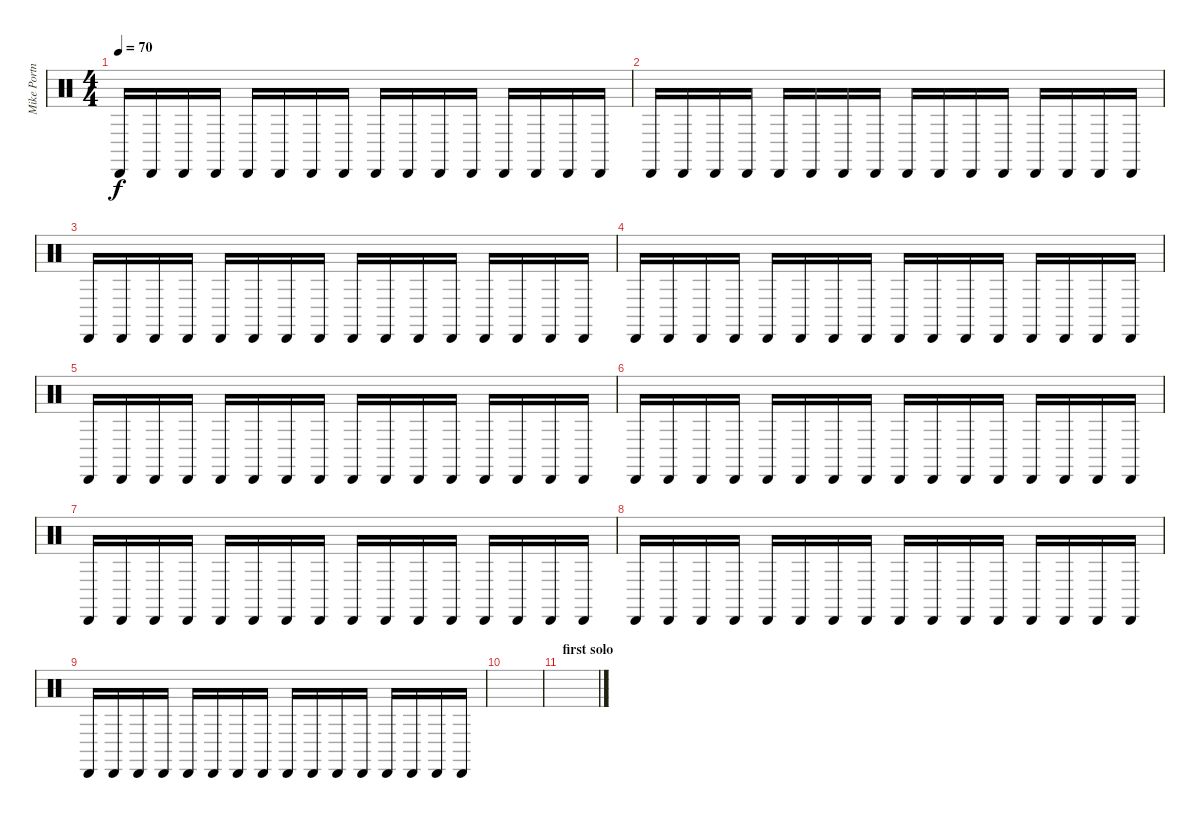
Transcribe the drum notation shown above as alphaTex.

\track ("Mike Portnoy" "Mike Portn") {instrument percussion}
\staff {score}
\articulation defaults
\ts (4 4)
\tempo 70
\clef neutral
\ks c "Cabasa (hit)".16{dy f} "Cabasa (hit)".16 "Cabasa (hit)".16 "Cabasa (hit)".16 "Cabasa (hit)".16 "Cabasa (hit)".16 "Cabasa (hit)".16 "Cabasa (hit)".16 "Cabasa (hit)".16 "Cabasa (hit)".16 "Cabasa (hit)".16 "Cabasa (hit)".16 "Cabasa (hit)".16 "Cabasa (hit)".16 "Cabasa (hit)".16 "Cabasa (hit)".16
|
"Cabasa (hit)".16 "Cabasa (hit)".16 "Cabasa (hit)".16 "Cabasa (hit)".16 "Cabasa (hit)".16 "Cabasa (hit)".16 "Cabasa (hit)".16 "Cabasa (hit)".16 "Cabasa (hit)".16 "Cabasa (hit)".16 "Cabasa (hit)".16 "Cabasa (hit)".16 "Cabasa (hit)".16 "Cabasa (hit)".16 "Cabasa (hit)".16 "Cabasa (hit)".16 |
"Cabasa (hit)".16 "Cabasa (hit)".16 "Cabasa (hit)".16 "Cabasa (hit)".16 "Cabasa (hit)".16 "Cabasa (hit)".16 "Cabasa (hit)".16 "Cabasa (hit)".16 "Cabasa (hit)".16 "Cabasa (hit)".16 "Cabasa (hit)".16 "Cabasa (hit)".16 "Cabasa (hit)".16 "Cabasa (hit)".16 "Cabasa (hit)".16 "Cabasa (hit)".16 |
"Cabasa (hit)".16 "Cabasa (hit)".16 "Cabasa (hit)".16 "Cabasa (hit)".16 "Cabasa (hit)".16 "Cabasa (hit)".16 "Cabasa (hit)".16 "Cabasa (hit)".16 "Cabasa (hit)".16 "Cabasa (hit)".16 "Cabasa (hit)".16 "Cabasa (hit)".16 "Cabasa (hit)".16 "Cabasa (hit)".16 "Cabasa (hit)".16 "Cabasa (hit)".16 |
"Cabasa (hit)".16 "Cabasa (hit)".16 "Cabasa (hit)".16 "Cabasa (hit)".16 "Cabasa (hit)".16 "Cabasa (hit)".16 "Cabasa (hit)".16 "Cabasa (hit)".16 "Cabasa (hit)".16 "Cabasa (hit)".16 "Cabasa (hit)".16 "Cabasa (hit)".16 "Cabasa (hit)".16 "Cabasa (hit)".16 "Cabasa (hit)".16 "Cabasa (hit)".16 |
"Cabasa (hit)".16 "Cabasa (hit)".16 "Cabasa (hit)".16 "Cabasa (hit)".16 "Cabasa (hit)".16 "Cabasa (hit)".16 "Cabasa (hit)".16 "Cabasa (hit)".16 "Cabasa (hit)".16 "Cabasa (hit)".16 "Cabasa (hit)".16 "Cabasa (hit)".16 "Cabasa (hit)".16 "Cabasa (hit)".16 "Cabasa (hit)".16 "Cabasa (hit)".16 |
"Cabasa (hit)".16 "Cabasa (hit)".16 "Cabasa (hit)".16 "Cabasa (hit)".16 "Cabasa (hit)".16 "Cabasa (hit)".16 "Cabasa (hit)".16 "Cabasa (hit)".16 "Cabasa (hit)".16 "Cabasa (hit)".16 "Cabasa (hit)".16 "Cabasa (hit)".16 "Cabasa (hit)".16 "Cabasa (hit)".16 "Cabasa (hit)".16 "Cabasa (hit)".16 |
"Cabasa (hit)".16 "Cabasa (hit)".16 "Cabasa (hit)".16 "Cabasa (hit)".16 "Cabasa (hit)".16 "Cabasa (hit)".16 "Cabasa (hit)".16 "Cabasa (hit)".16 "Cabasa (hit)".16 "Cabasa (hit)".16 "Cabasa (hit)".16 "Cabasa (hit)".16 "Cabasa (hit)".16 "Cabasa (hit)".16 "Cabasa (hit)".16 "Cabasa (hit)".16 |
"Cabasa (hit)".16 "Cabasa (hit)".16 "Cabasa (hit)".16 "Cabasa (hit)".16 "Cabasa (hit)".16 "Cabasa (hit)".16 "Cabasa (hit)".16 "Cabasa (hit)".16 "Cabasa (hit)".16 "Cabasa (hit)".16 "Cabasa (hit)".16 "Cabasa (hit)".16 "Cabasa (hit)".16 "Cabasa (hit)".16 "Cabasa (hit)".16 "Cabasa (hit)".16 |
|
\section ("" "first solo")
